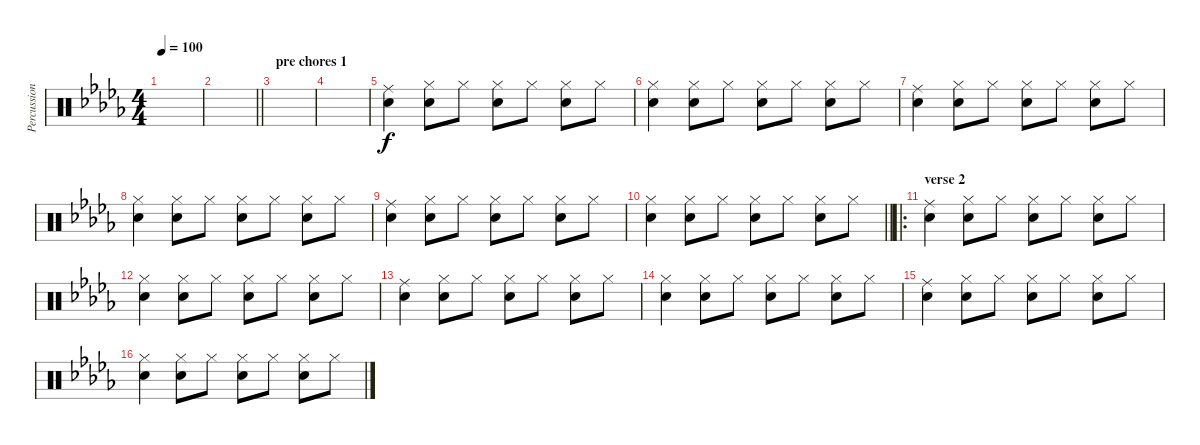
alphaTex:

\track ("Percussion( mike mamillin)" "Percussion") {instrument percussion}
\staff {score}
\articulation defaults
\ts (4 4)
\tempo 100
\clef neutral
\ks db
|
\barLineRight lightlight
|
\section ("" "pre chores 1")
|
|
("Ride (middle)" "Electric Snare (hit)").4 ("Hi-Hat (closed)" "Electric Snare (hit)").8 "Hi-Hat (closed)".8 ("Hi-Hat (closed)" "Electric Snare (hit)").8 "Hi-Hat (closed)".8 ("Hi-Hat (closed)" "Electric Snare (hit)").8 "Hi-Hat (closed)".8 |
("Hi-Hat (closed)" "Electric Snare (hit)").4 ("Hi-Hat (closed)" "Electric Snare (hit)").8 "Hi-Hat (closed)".8 ("Hi-Hat (closed)" "Electric Snare (hit)").8 "Hi-Hat (closed)".8 ("Hi-Hat (closed)" "Electric Snare (hit)").8 "Hi-Hat (closed)".8 |
("Ride (middle)" "Electric Snare (hit)").4 ("Hi-Hat (closed)" "Electric Snare (hit)").8 "Hi-Hat (closed)".8 ("Hi-Hat (closed)" "Electric Snare (hit)").8 "Hi-Hat (closed)".8 ("Hi-Hat (closed)" "Electric Snare (hit)").8 "Hi-Hat (closed)".8 |
("Hi-Hat (closed)" "Electric Snare (hit)").4 ("Hi-Hat (closed)" "Electric Snare (hit)").8 "Hi-Hat (closed)".8 ("Hi-Hat (closed)" "Electric Snare (hit)").8 "Hi-Hat (closed)".8 ("Hi-Hat (closed)" "Electric Snare (hit)").8 "Hi-Hat (closed)".8 |
("Ride (middle)" "Electric Snare (hit)").4 ("Hi-Hat (closed)" "Electric Snare (hit)").8 "Hi-Hat (closed)".8 ("Hi-Hat (closed)" "Electric Snare (hit)").8 "Hi-Hat (closed)".8 ("Hi-Hat (closed)" "Electric Snare (hit)").8 "Hi-Hat (closed)".8 |
\barLineRight lightlight
("Hi-Hat (closed)" "Electric Snare (hit)").4 ("Hi-Hat (closed)" "Electric Snare (hit)").8 "Hi-Hat (closed)".8 ("Hi-Hat (closed)" "Electric Snare (hit)").8 "Hi-Hat (closed)".8 ("Hi-Hat (closed)" "Electric Snare (hit)").8 "Hi-Hat (closed)".8 |
\ro
\section ("" "verse 2")
("Ride (middle)" "Electric Snare (hit)").4 ("Hi-Hat (closed)" "Electric Snare (hit)").8 "Hi-Hat (closed)".8 ("Hi-Hat (closed)" "Electric Snare (hit)").8 "Hi-Hat (closed)".8 ("Hi-Hat (closed)" "Electric Snare (hit)").8 "Hi-Hat (closed)".8 |
("Hi-Hat (closed)" "Electric Snare (hit)").4 ("Hi-Hat (closed)" "Electric Snare (hit)").8 "Hi-Hat (closed)".8 ("Hi-Hat (closed)" "Electric Snare (hit)").8 "Hi-Hat (closed)".8 ("Hi-Hat (closed)" "Electric Snare (hit)").8 "Hi-Hat (closed)".8 |
("Ride (middle)" "Electric Snare (hit)").4 ("Hi-Hat (closed)" "Electric Snare (hit)").8 "Hi-Hat (closed)".8 ("Hi-Hat (closed)" "Electric Snare (hit)").8 "Hi-Hat (closed)".8 ("Hi-Hat (closed)" "Electric Snare (hit)").8 "Hi-Hat (closed)".8 |
("Hi-Hat (closed)" "Electric Snare (hit)").4 ("Hi-Hat (closed)" "Electric Snare (hit)").8 "Hi-Hat (closed)".8 ("Hi-Hat (closed)" "Electric Snare (hit)").8 "Hi-Hat (closed)".8 ("Hi-Hat (closed)" "Electric Snare (hit)").8 "Hi-Hat (closed)".8 |
("Ride (middle)" "Electric Snare (hit)").4 ("Hi-Hat (closed)" "Electric Snare (hit)").8 "Hi-Hat (closed)".8 ("Hi-Hat (closed)" "Electric Snare (hit)").8 "Hi-Hat (closed)".8 ("Hi-Hat (closed)" "Electric Snare (hit)").8 "Hi-Hat (closed)".8 |
("Hi-Hat (closed)" "Electric Snare (hit)").4 ("Hi-Hat (closed)" "Electric Snare (hit)").8 "Hi-Hat (closed)".8 ("Hi-Hat (closed)" "Electric Snare (hit)").8 "Hi-Hat (closed)".8 ("Hi-Hat (closed)" "Electric Snare (hit)").8 "Hi-Hat (closed)".8
